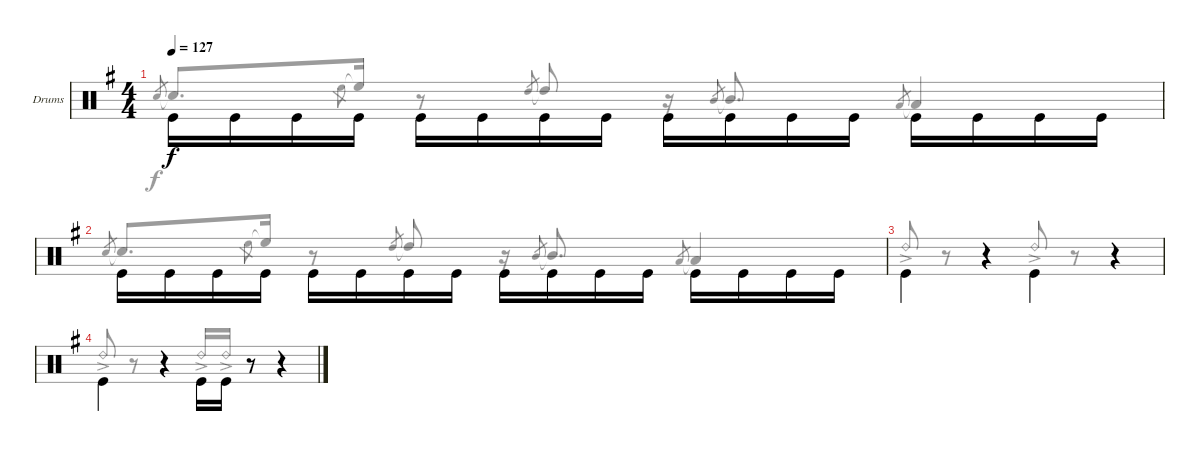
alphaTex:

\defaultSystemsLayout 4
\bracketExtendMode groupsimilarinstruments
\firstSystemTrackNameOrientation horizontal
\otherSystemsTrackNameOrientation horizontal
\track ("Drums" "Drums") {instrument percussion}
\staff {score}
\articulation defaults
\voice
\ts (4 4)
\tempo 127
\clef neutral
\scale
1.04288
\ks g "Kick (hit)".16{dy f beam invert} "Kick (hit)".16 "Kick (hit)".16 "Kick (hit)".16 "Kick (hit)".16{beam invert} "Kick (hit)".16 "Kick (hit)".16 "Kick (hit)".16 "Kick (hit)".16{beam invert} "Kick (hit)".16 "Kick (hit)".16 "Kick (hit)".16 "Kick (hit)".16{beam invert} "Kick (hit)".16 "Kick (hit)".16 "Kick (hit)".16
|
\scale
0.957125 "Kick (hit)".16{beam invert} "Kick (hit)".16 "Kick (hit)".16 "Kick (hit)".16 "Kick (hit)".16{beam invert} "Kick (hit)".16 "Kick (hit)".16 "Kick (hit)".16 "Kick (hit)".16{beam invert} "Kick (hit)".16 "Kick (hit)".16 "Kick (hit)".16 "Kick (hit)".16{beam invert} "Kick (hit)".16 "Kick (hit)".16 "Kick (hit)".16 |
\scale
1.04288 "Kick (hit)".4{beam invert} r.4 "Kick (hit)".4{beam invert} r.4 |
\scale
0.957125 "Kick (hit)".4{beam invert} r.4 "Kick (hit)".16{beam invert} "Kick (hit)".16 r.8 r.4
\voice
\clef neutral
\ottava regular
\simile none
\scale
1.04288
\ks g "Snare (hit) 2".8{gr dy f beam invert} "Snare (hit) 2"{t}.8{d beam invert} "High Floor Tom (hit)".8{gr} "High Floor Tom (hit)"{t}.16
r.8{beam invert} "High Tom (hit)".8{gr beam invert} "High Tom (hit)"{t}.8{beam invert} r.16{beam invert} "Mid Tom (hit)".8{gr beam invert} "Mid Tom (hit)"{t}.8{d beam invert} "Low Tom (hit)".8{gr beam invert} "Low Tom (hit)"{t}.4{beam invert} |
\scale
0.957125 "Snare (hit) 2".8{gr beam invert} "Snare (hit) 2"{t}.8{d beam invert} "High Floor Tom (hit)".8{gr} "High Floor Tom (hit)"{t}.16 r.8{beam invert} "High Tom (hit)".8{gr beam invert} "High Tom (hit)"{t}.8{beam invert} r.16{beam invert} "Mid Tom (hit)".8{gr beam invert} "Mid Tom (hit)"{t}.8{d beam invert} "Low Tom (hit)".8{gr beam invert} "Low Tom (hit)"{t}.4{beam invert} |
\scale
1.04288 "Ride (bell) 2"{ac}.8{beam invert} r.8 r.4 "Ride (bell) 2"{ac}.8{beam invert} r.8 r.4 |
\scale
0.957125 "Ride (bell) 2"{ac}.8{beam invert} r.8 r.4 "Ride (bell) 2"{ac}.16{beam invert} "Ride (bell) 2"{ac}.16 r.8 r.4
